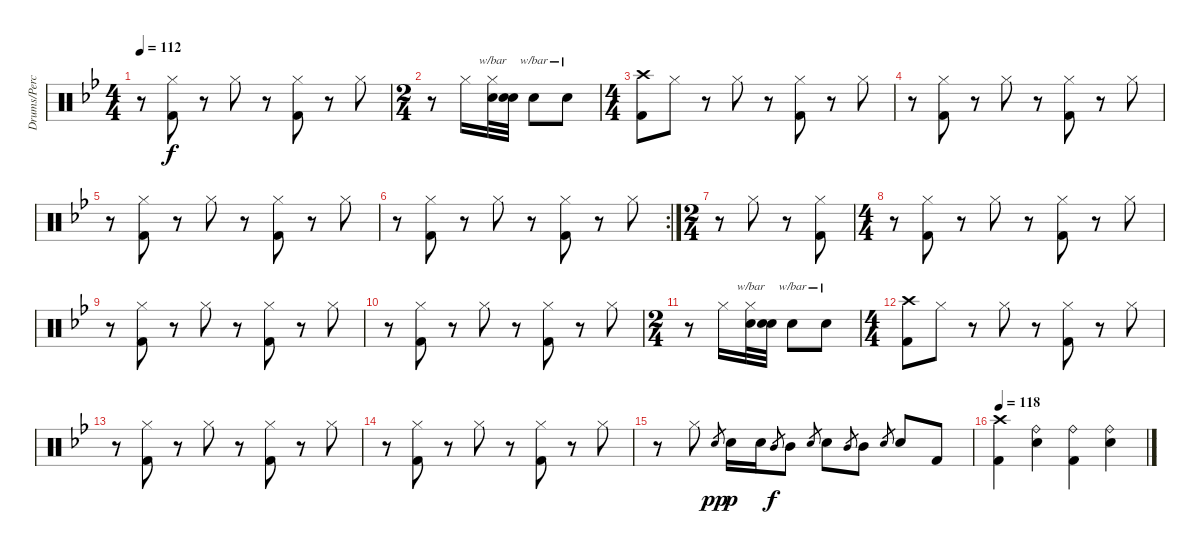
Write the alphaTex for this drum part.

\track ("Drums/Percussion (Bengerg)" "Drums/Perc") {instrument percussion}
\staff {score}
\articulation defaults
\ts (4 4)
\tempo 112
\clef neutral
\ks bb
r.8{dy f} ("Hi-Hat (closed)" "Kick (hit) 2").8 r.8 "Hi-Hat (closed)".8 r.8 ("Hi-Hat (closed)" "Kick (hit) 2").8 r.8 "Hi-Hat (closed)".8 |
\ts (2 4)
r.8 "Hi-Hat (closed)".16 ("Hi-Hat (closed)" "Electric Snare (hit)").32{tbe (custom default 0 12 45 12 60 0)} ("Snare (hit)"{t} "Electric Snare (hit)").32 "Electric Snare (hit)".8{tbe (custom default 0 12 45 12 60 0) balance 16} "Electric Snare (hit)".8{tbe (custom default 0 12 45 12 60 0) balance 0} |
\ts (4 4)
("Crash high (hit)" "Kick (hit) 2").8{balance 8} "Hi-Hat (closed)".8 r.8 "Hi-Hat (closed)".8 r.8 ("Hi-Hat (closed)" "Kick (hit) 2").8 r.8 "Hi-Hat (closed)".8 |
r.8 ("Hi-Hat (closed)" "Kick (hit) 2").8 r.8 "Hi-Hat (closed)".8 r.8 ("Hi-Hat (closed)" "Kick (hit) 2").8 r.8 "Hi-Hat (closed)".8 |
r.8 ("Hi-Hat (closed)" "Kick (hit) 2").8 r.8 "Hi-Hat (closed)".8 r.8 ("Hi-Hat (closed)" "Kick (hit) 2").8 r.8 "Hi-Hat (closed)".8 |
\rc 2
r.8 ("Hi-Hat (closed)" "Kick (hit) 2").8 r.8 "Hi-Hat (closed)".8 r.8 ("Hi-Hat (closed)" "Kick (hit) 2").8 r.8 "Hi-Hat (closed)".8 |
\ts (2 4)
r.8 "Hi-Hat (closed)".8 r.8 ("Hi-Hat (closed)" "Kick (hit) 2").8 |
\ts (4 4)
r.8 ("Hi-Hat (closed)" "Kick (hit) 2").8 r.8 "Hi-Hat (closed)".8 r.8 ("Hi-Hat (closed)" "Kick (hit) 2").8 r.8 "Hi-Hat (closed)".8 |
r.8 ("Hi-Hat (closed)" "Kick (hit) 2").8 r.8 "Hi-Hat (closed)".8 r.8 ("Hi-Hat (closed)" "Kick (hit) 2").8 r.8 "Hi-Hat (closed)".8 |
r.8 ("Hi-Hat (closed)" "Kick (hit) 2").8 r.8 "Hi-Hat (closed)".8 r.8 ("Hi-Hat (closed)" "Kick (hit) 2").8 r.8 "Hi-Hat (closed)".8 |
\ts (2 4)
r.8 "Hi-Hat (closed)".16 ("Hi-Hat (closed)" "Electric Snare (hit)").32{tbe (custom default 0 12 45 12 60 0)} ("Snare (hit)"{t} "Electric Snare (hit)").32 "Electric Snare (hit)".8{tbe (custom default 0 12 45 12 60 0) balance 16} "Electric Snare (hit)".8{tbe (custom default 0 12 45 12 60 0) balance 0} |
\ts (4 4)
("Crash high (hit)" "Kick (hit) 2").8{balance 8} "Hi-Hat (closed)".8 r.8 "Hi-Hat (closed)".8 r.8 ("Hi-Hat (closed)" "Kick (hit) 2").8 r.8 "Hi-Hat (closed)".8 |
r.8 ("Hi-Hat (closed)" "Kick (hit) 2").8 r.8 "Hi-Hat (closed)".8 r.8 ("Hi-Hat (closed)" "Kick (hit) 2").8 r.8 "Hi-Hat (closed)".8 |
r.8 ("Hi-Hat (closed)" "Kick (hit) 2").8 r.8 "Hi-Hat (closed)".8 r.8 ("Hi-Hat (closed)" "Kick (hit) 2").8 r.8 "Hi-Hat (closed)".8 |
r.8 "Hi-Hat (closed)".8 "Electric Snare (hit)".8{gr dy pp} "Electric Snare (hit)".16{dy p} "Electric Snare (hit)".16 "Mid Tom (hit)".8{gr dy f} "Mid Tom (hit)".8 "Electric Snare (hit)".8{gr} "Electric Snare (hit)".8 "Mid Tom (hit)".8{gr} "Mid Tom (hit)".8 "Electric Snare (hit)".8{gr} "Electric Snare (hit)".8 "Kick (hit) 2".8 |
\tempo 118
("Crash high (hit)" "Kick (hit) 2").4 ("Ride (bell)" "Electric Snare (hit)").4 ("Ride (bell)" "Kick (hit) 2").4 ("Ride (bell)" "Electric Snare (hit)").4
